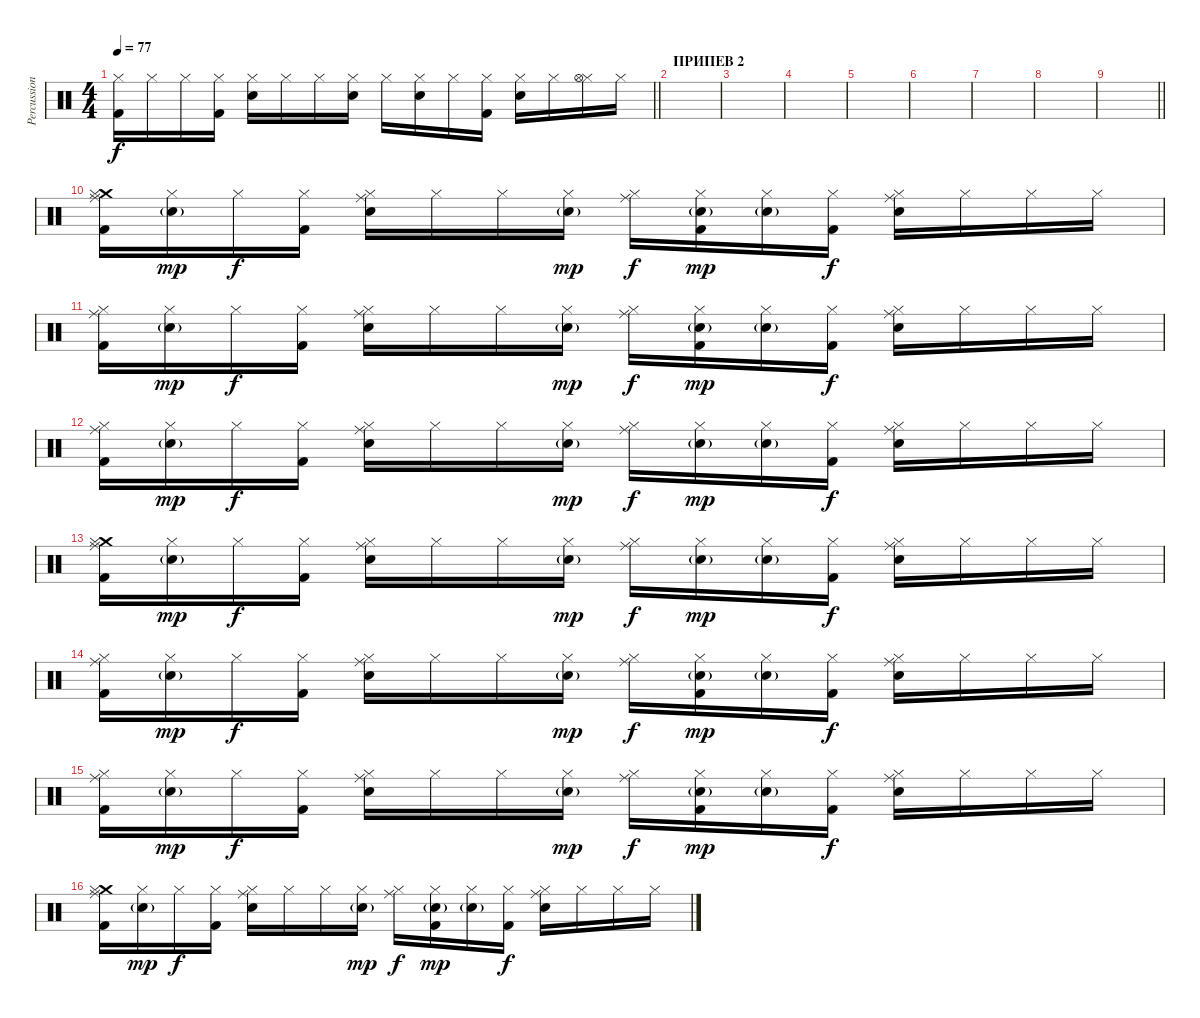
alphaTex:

\track ("Percussion" "Percussion") {instrument percussion}
\staff {score}
\articulation defaults
\ts (4 4)
\tempo 77
\clef neutral
\barLineRight lightlight
\ks c
("Hi-Hat (closed)" "Kick (hit) 2").16{dy f} "Hi-Hat (closed)".16 "Hi-Hat (closed)".16 ("Hi-Hat (closed)" "Kick (hit) 2").16 ("Hi-Hat (closed)" "Electric Snare (hit)").16 "Hi-Hat (closed)".16 "Hi-Hat (closed)".16 ("Hi-Hat (closed)" "Electric Snare (hit)").16 "Hi-Hat (closed)".16 ("Hi-Hat (closed)" "Electric Snare (hit)").16 "Hi-Hat (closed)".16 ("Hi-Hat (closed)" "Kick (hit) 2").16 ("Hi-Hat (closed)" "Electric Snare (hit)").16 "Hi-Hat (closed)".16 ("Hi-Hat (closed)" "Hi-Hat (open)").16 "Hi-Hat (closed)".16 |
\section ("" "ПРИПЕВ 2")
|
|
|
|
|
|
|
\barLineRight lightlight
|
("Crash medium (hit)" "Hi-Hat (closed)" "Ride (middle)" "Kick (hit) 2").16 ("Hi-Hat (closed)" "Electric Snare (hit)"{g}).16{dy mp} "Hi-Hat (closed)".16{dy f} ("Hi-Hat (closed)" "Kick (hit) 2").16 ("Hi-Hat (closed)" "Ride (middle)" "Electric Snare (hit)").16 "Hi-Hat (closed)".16 "Hi-Hat (closed)".16 ("Hi-Hat (closed)" "Electric Snare (hit)"{g}).16{dy mp} ("Hi-Hat (closed)" "Ride (middle)").16{dy f} ("Hi-Hat (closed)" "Electric Snare (hit)"{g} "Kick (hit) 2").16{dy mp} ("Hi-Hat (closed)" "Electric Snare (hit)"{g}).16 ("Hi-Hat (closed)" "Kick (hit) 2").16{dy f} ("Hi-Hat (closed)" "Ride (middle)" "Electric Snare (hit)").16 "Hi-Hat (closed)".16 "Hi-Hat (closed)".16 "Hi-Hat (closed)".16 |
("Hi-Hat (closed)" "Ride (middle)" "Kick (hit) 2").16 ("Hi-Hat (closed)" "Electric Snare (hit)"{g}).16{dy mp} "Hi-Hat (closed)".16{dy f} ("Hi-Hat (closed)" "Kick (hit) 2").16 ("Hi-Hat (closed)" "Ride (middle)" "Electric Snare (hit)").16 "Hi-Hat (closed)".16 "Hi-Hat (closed)".16 ("Hi-Hat (closed)" "Electric Snare (hit)"{g}).16{dy mp} ("Hi-Hat (closed)" "Ride (middle)").16{dy f} ("Hi-Hat (closed)" "Electric Snare (hit)"{g} "Kick (hit) 2").16{dy mp} ("Hi-Hat (closed)" "Electric Snare (hit)"{g}).16 ("Hi-Hat (closed)" "Kick (hit) 2").16{dy f} ("Hi-Hat (closed)" "Ride (middle)" "Electric Snare (hit)").16 "Hi-Hat (closed)".16 "Hi-Hat (closed)".16 "Hi-Hat (closed)".16 |
("Hi-Hat (closed)" "Ride (middle)" "Kick (hit) 2").16 ("Hi-Hat (closed)" "Electric Snare (hit)"{g}).16{dy mp} "Hi-Hat (closed)".16{dy f} ("Hi-Hat (closed)" "Kick (hit) 2").16 ("Hi-Hat (closed)" "Ride (middle)" "Electric Snare (hit)").16 "Hi-Hat (closed)".16 "Hi-Hat (closed)".16 ("Hi-Hat (closed)" "Electric Snare (hit)"{g}).16{dy mp} ("Hi-Hat (closed)" "Ride (middle)").16{dy f} ("Hi-Hat (closed)" "Electric Snare (hit)"{g}).16{dy mp} ("Hi-Hat (closed)" "Electric Snare (hit)"{g}).16 ("Hi-Hat (closed)" "Kick (hit) 2").16{dy f} ("Hi-Hat (closed)" "Ride (middle)" "Electric Snare (hit)").16 "Hi-Hat (closed)".16 "Hi-Hat (closed)".16 "Hi-Hat (closed)".16 |
("Crash medium (hit)" "Hi-Hat (closed)" "Ride (middle)" "Kick (hit) 2").16 ("Hi-Hat (closed)" "Electric Snare (hit)"{g}).16{dy mp} "Hi-Hat (closed)".16{dy f} ("Hi-Hat (closed)" "Kick (hit) 2").16 ("Hi-Hat (closed)" "Ride (middle)" "Electric Snare (hit)").16 "Hi-Hat (closed)".16 "Hi-Hat (closed)".16 ("Hi-Hat (closed)" "Electric Snare (hit)"{g}).16{dy mp} ("Hi-Hat (closed)" "Ride (middle)").16{dy f} ("Hi-Hat (closed)" "Electric Snare (hit)"{g}).16{dy mp} ("Hi-Hat (closed)" "Electric Snare (hit)"{g}).16 ("Hi-Hat (closed)" "Kick (hit) 2").16{dy f} ("Hi-Hat (closed)" "Ride (middle)" "Electric Snare (hit)").16 "Hi-Hat (closed)".16 "Hi-Hat (closed)".16 "Hi-Hat (closed)".16 |
("Hi-Hat (closed)" "Ride (middle)" "Kick (hit) 2").16 ("Hi-Hat (closed)" "Electric Snare (hit)"{g}).16{dy mp} "Hi-Hat (closed)".16{dy f} ("Hi-Hat (closed)" "Kick (hit) 2").16 ("Hi-Hat (closed)" "Ride (middle)" "Electric Snare (hit)").16 "Hi-Hat (closed)".16 "Hi-Hat (closed)".16 ("Hi-Hat (closed)" "Electric Snare (hit)"{g}).16{dy mp} ("Hi-Hat (closed)" "Ride (middle)").16{dy f} ("Hi-Hat (closed)" "Electric Snare (hit)"{g} "Kick (hit) 2").16{dy mp} ("Hi-Hat (closed)" "Electric Snare (hit)"{g}).16 ("Hi-Hat (closed)" "Kick (hit) 2").16{dy f} ("Hi-Hat (closed)" "Ride (middle)" "Electric Snare (hit)").16 "Hi-Hat (closed)".16 "Hi-Hat (closed)".16 "Hi-Hat (closed)".16 |
("Hi-Hat (closed)" "Ride (middle)" "Kick (hit) 2").16 ("Hi-Hat (closed)" "Electric Snare (hit)"{g}).16{dy mp} "Hi-Hat (closed)".16{dy f} ("Hi-Hat (closed)" "Kick (hit) 2").16 ("Hi-Hat (closed)" "Ride (middle)" "Electric Snare (hit)").16 "Hi-Hat (closed)".16 "Hi-Hat (closed)".16 ("Hi-Hat (closed)" "Electric Snare (hit)"{g}).16{dy mp} ("Hi-Hat (closed)" "Ride (middle)").16{dy f} ("Hi-Hat (closed)" "Electric Snare (hit)"{g} "Kick (hit) 2").16{dy mp} ("Hi-Hat (closed)" "Electric Snare (hit)"{g}).16 ("Hi-Hat (closed)" "Kick (hit) 2").16{dy f} ("Hi-Hat (closed)" "Ride (middle)" "Electric Snare (hit)").16 "Hi-Hat (closed)".16 "Hi-Hat (closed)".16 "Hi-Hat (closed)".16 |
("Crash medium (hit)" "Hi-Hat (closed)" "Ride (middle)" "Kick (hit) 2").16 ("Hi-Hat (closed)" "Electric Snare (hit)"{g}).16{dy mp} "Hi-Hat (closed)".16{dy f} ("Hi-Hat (closed)" "Kick (hit) 2").16 ("Hi-Hat (closed)" "Ride (middle)" "Electric Snare (hit)").16 "Hi-Hat (closed)".16 "Hi-Hat (closed)".16 ("Hi-Hat (closed)" "Electric Snare (hit)"{g}).16{dy mp} ("Hi-Hat (closed)" "Ride (middle)").16{dy f} ("Hi-Hat (closed)" "Electric Snare (hit)"{g} "Kick (hit) 2").16{dy mp} ("Hi-Hat (closed)" "Electric Snare (hit)"{g}).16 ("Hi-Hat (closed)" "Kick (hit) 2").16{dy f} ("Hi-Hat (closed)" "Ride (middle)" "Electric Snare (hit)").16 "Hi-Hat (closed)".16 "Hi-Hat (closed)".16 "Hi-Hat (closed)".16
